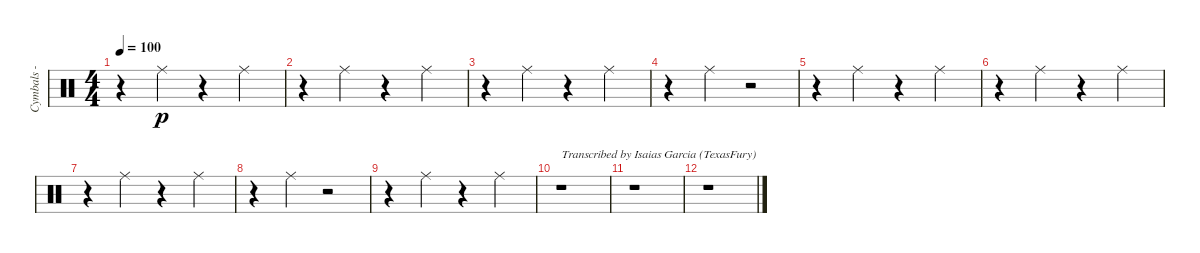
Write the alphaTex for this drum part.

\track ("Cymbals - ride" "Cymbals - ") {instrument percussion}
\staff {score}
\articulation defaults
\ts (4 4)
\tempo 100
\clef neutral
\ks aminor
r.4{dy p} "Ride (middle)".4 r.4 "Ride (middle)".4 |
r.4 "Ride (middle)".4 r.4 "Ride (middle)".4 |
r.4 "Ride (middle)".4 r.4 "Ride (middle)".4 |
r.4 "Ride (middle)".4 r.2 |
r.4 "Ride (middle)".4 r.4 "Ride (middle)".4 |
r.4 "Ride (middle)".4 r.4 "Ride (middle)".4 |
r.4 "Ride (middle)".4 r.4 "Ride (middle)".4 |
r.4 "Ride (middle)".4 r.2 |
r.4 "Ride (middle)".4 r.4 "Ride (middle)".4 |
r.1{txt "Transcribed by Isaias Garcia (TexasFury)"} |
r.1 |
r.1
